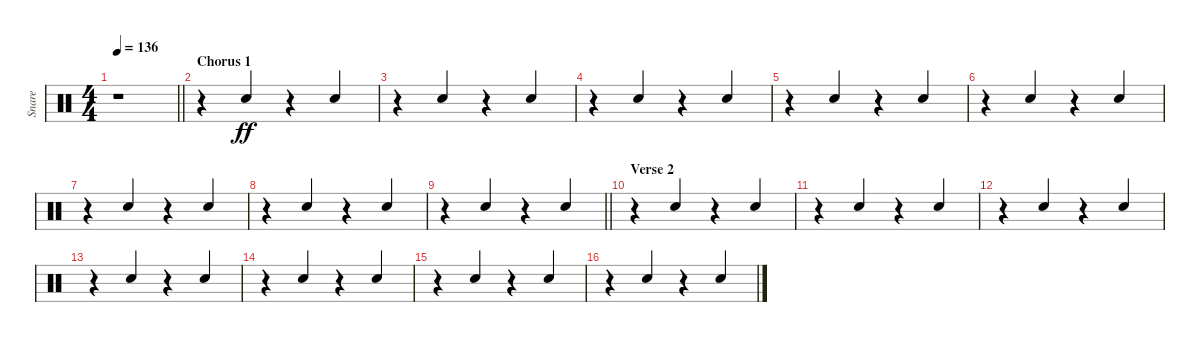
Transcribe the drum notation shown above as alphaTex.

\track ("Snare" "Snare") {instrument percussion}
\staff {score}
\articulation defaults
\ts (4 4)
\tempo 136
\clef neutral
\barLineRight lightlight
\ks c
r.1{dy ff} |
\section ("" "Chorus 1")
r.4{beam merge} "Electric Snare (hit)".4{beam Up} r.4{beam merge} "Electric Snare (hit)".4{beam Up} |
r.4{beam merge} "Electric Snare (hit)".4{beam Up} r.4{beam merge} "Electric Snare (hit)".4{beam Up} |
r.4{beam merge} "Electric Snare (hit)".4{beam Up} r.4{beam merge} "Electric Snare (hit)".4{beam Up} |
r.4{beam merge} "Electric Snare (hit)".4{beam Up} r.4{beam merge} "Electric Snare (hit)".4{beam Up} |
r.4{beam merge} "Electric Snare (hit)".4{beam Up} r.4{beam merge} "Electric Snare (hit)".4{beam Up} |
r.4{beam merge} "Electric Snare (hit)".4{beam Up} r.4{beam merge} "Electric Snare (hit)".4{beam Up} |
r.4{beam merge} "Electric Snare (hit)".4{beam Up} r.4{beam merge} "Electric Snare (hit)".4{beam Up} |
\barLineRight lightlight
r.4{beam merge} "Electric Snare (hit)".4{beam Up} r.4{beam merge} "Electric Snare (hit)".4{beam Up} |
\section ("" "Verse 2")
r.4 "Electric Snare (hit)".4{beam Up} r.4{beam merge} "Electric Snare (hit)".4{beam Up} |
r.4 "Electric Snare (hit)".4{beam Up} r.4{beam merge} "Electric Snare (hit)".4{beam Up} |
r.4 "Electric Snare (hit)".4{beam Up} r.4{beam merge} "Electric Snare (hit)".4{beam Up} |
r.4 "Electric Snare (hit)".4{beam Up} r.4{beam merge} "Electric Snare (hit)".4{beam Up} |
r.4 "Electric Snare (hit)".4{beam Up} r.4{beam merge} "Electric Snare (hit)".4{beam Up} |
r.4 "Electric Snare (hit)".4{beam Up} r.4{beam merge} "Electric Snare (hit)".4{beam Up} |
r.4 "Electric Snare (hit)".4{beam Up} r.4{beam merge} "Electric Snare (hit)".4{beam Up}
